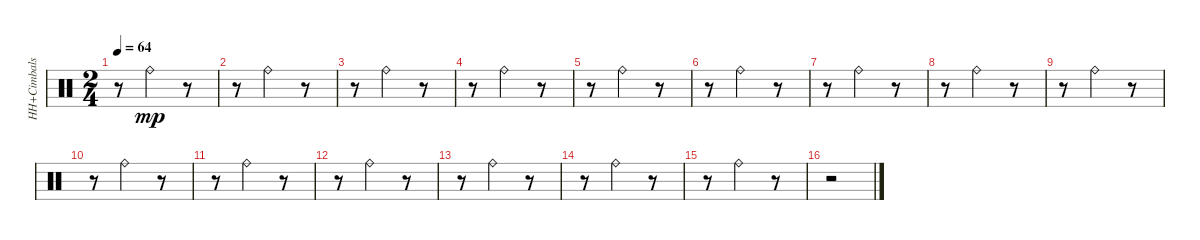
\track ("HH+Cimbals" "HH+Cimbals") {instrument percussion}
\staff {score}
\articulation defaults
\ts (2 4)
\tempo 64
\clef neutral
\ks c
r.8{dy mp} "Ride (bell)".4 r.8 |
r.8 "Ride (bell)".4 r.8 |
r.8 "Ride (bell)".4 r.8 |
r.8 "Ride (bell)".4 r.8 |
r.8 "Ride (bell)".4 r.8 |
r.8 "Ride (bell)".4 r.8 |
r.8 "Ride (bell)".4 r.8 |
r.8 "Ride (bell)".4 r.8 |
r.8 "Ride (bell)".4 r.8 |
r.8 "Ride (bell)".4 r.8 |
r.8 "Ride (bell)".4 r.8 |
r.8 "Ride (bell)".4 r.8 |
r.8 "Ride (bell)".4 r.8 |
r.8 "Ride (bell)".4 r.8 |
r.8 "Ride (bell)".4 r.8 |
r.2
